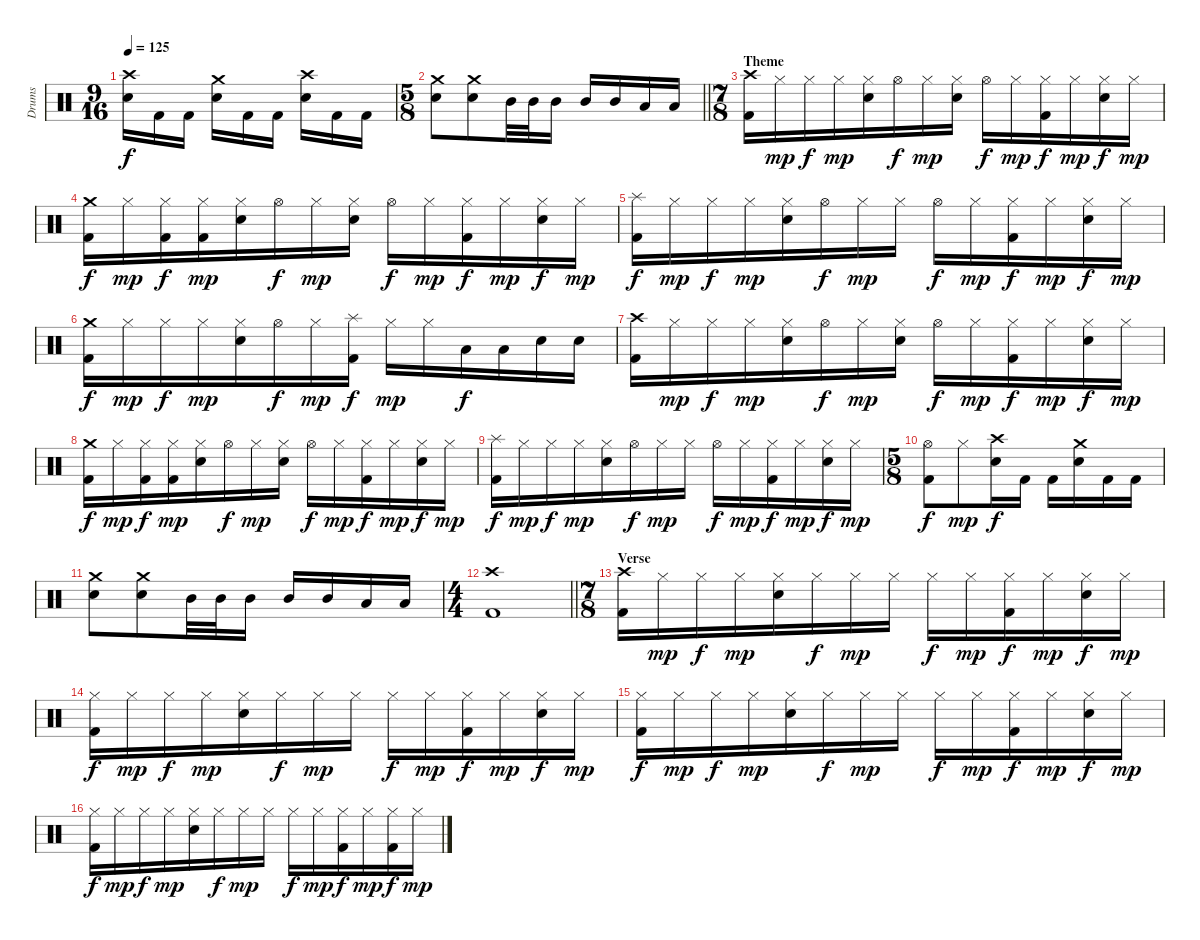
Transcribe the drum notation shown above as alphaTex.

\track ("Drums" "Drums") {instrument percussion}
\staff {score}
\articulation defaults
\ts (9 16)
\tempo 125
\clef neutral
\ks c
("Crash high (hit)" "Electric Snare (hit)").16{dy f} "Kick (hit) 2".16 "Kick (hit) 2".16 ("Crash medium (hit)" "Electric Snare (hit)").16 "Kick (hit) 2".16 "Kick (hit) 2".16 ("Crash high (hit)" "Electric Snare (hit)").16 "Kick (hit) 2".16 "Kick (hit) 2".16 |
\ts (5 8)
\barLineRight lightlight
("Crash medium (hit)" "Electric Snare (hit)").8 ("Crash medium (hit)" "Electric Snare (hit)").8 "Mid Tom (hit)".32 "Mid Tom (hit)".32 "Mid Tom (hit)".16 "Mid Tom (hit)".16 "Mid Tom (hit)".16 "Low Tom (hit)".16 "Low Tom (hit)".16 |
\ts (7 8)
\section ("" "Theme")
("Kick (hit) 2" "Crash high (hit)").16 "Hi-Hat (closed)".16{dy mp} "Hi-Hat (closed)".16{dy f} "Hi-Hat (closed)".16{dy mp} ("Hi-Hat (closed)" "Electric Snare (hit)").16 "Hi-Hat (open)".16{dy f} "Hi-Hat (closed)".16{dy mp} ("Hi-Hat (closed)" "Electric Snare (hit)").16 "Hi-Hat (open)".16{dy f} "Hi-Hat (closed)".16{dy mp} ("Kick (hit) 2" "Hi-Hat (closed)").16{dy f} "Hi-Hat (closed)".16{dy mp} ("Hi-Hat (closed)" "Electric Snare (hit)").16{dy f} "Hi-Hat (closed)".16{dy mp} |
("Kick (hit) 2" "Crash medium (hit)").16{dy f} "Hi-Hat (closed)".16{dy mp} ("Kick (hit) 2" "Hi-Hat (closed)").16{dy f} ("Kick (hit) 2" "Hi-Hat (closed)").16{dy mp} ("Hi-Hat (closed)" "Electric Snare (hit)").16 "Hi-Hat (open)".16{dy f} "Hi-Hat (closed)".16{dy mp} ("Hi-Hat (closed)" "Electric Snare (hit)").16 "Hi-Hat (open)".16{dy f} "Hi-Hat (closed)".16{dy mp} ("Kick (hit) 2" "Hi-Hat (closed)").16{dy f} "Hi-Hat (closed)".16{dy mp} ("Hi-Hat (closed)" "Electric Snare (hit)").16{dy f} "Hi-Hat (closed)".16{dy mp} |
("Kick (hit) 2" "Splash (hit)").16{dy f} "Hi-Hat (closed)".16{dy mp} "Hi-Hat (closed)".16{dy f} "Hi-Hat (closed)".16{dy mp} ("Hi-Hat (closed)" "Electric Snare (hit)").16 "Hi-Hat (open)".16{dy f} "Hi-Hat (closed)".16{dy mp} "Hi-Hat (closed)".16 "Hi-Hat (open)".16{dy f} "Hi-Hat (closed)".16{dy mp} ("Kick (hit) 2" "Hi-Hat (closed)").16{dy f} "Hi-Hat (closed)".16{dy mp} ("Hi-Hat (closed)" "Electric Snare (hit)").16{dy f} "Hi-Hat (closed)".16{dy mp} |
("Kick (hit) 2" "Crash medium (hit)").16{dy f} "Hi-Hat (closed)".16{dy mp} "Hi-Hat (closed)".16{dy f} "Hi-Hat (closed)".16{dy mp} ("Hi-Hat (closed)" "Electric Snare (hit)").16 "Hi-Hat (open)".16{dy f} "Hi-Hat (closed)".16{dy mp} ("Kick (hit) 2" "Splash (hit)").16{dy f} "Hi-Hat (closed)".16{dy mp} "Hi-Hat (closed)".16 "Low Tom (hit)".16{dy f} "Low Tom (hit)".16 "Electric Snare (hit)".16 "Electric Snare (hit)".16 |
("Kick (hit) 2" "Crash high (hit)").16 "Hi-Hat (closed)".16{dy mp} "Hi-Hat (closed)".16{dy f} "Hi-Hat (closed)".16{dy mp} ("Hi-Hat (closed)" "Electric Snare (hit)").16 "Hi-Hat (open)".16{dy f} "Hi-Hat (closed)".16{dy mp} ("Hi-Hat (closed)" "Electric Snare (hit)").16 "Hi-Hat (open)".16{dy f} "Hi-Hat (closed)".16{dy mp} ("Kick (hit) 2" "Hi-Hat (closed)").16{dy f} "Hi-Hat (closed)".16{dy mp} ("Hi-Hat (closed)" "Electric Snare (hit)").16{dy f} "Hi-Hat (closed)".16{dy mp} |
("Kick (hit) 2" "Crash medium (hit)").16{dy f} "Hi-Hat (closed)".16{dy mp} ("Kick (hit) 2" "Hi-Hat (closed)").16{dy f} ("Kick (hit) 2" "Hi-Hat (closed)").16{dy mp} ("Hi-Hat (closed)" "Electric Snare (hit)").16 "Hi-Hat (open)".16{dy f} "Hi-Hat (closed)".16{dy mp} ("Hi-Hat (closed)" "Electric Snare (hit)").16 "Hi-Hat (open)".16{dy f} "Hi-Hat (closed)".16{dy mp} ("Kick (hit) 2" "Hi-Hat (closed)").16{dy f} "Hi-Hat (closed)".16{dy mp} ("Hi-Hat (closed)" "Electric Snare (hit)").16{dy f} "Hi-Hat (closed)".16{dy mp} |
("Kick (hit) 2" "Splash (hit)").16{dy f} "Hi-Hat (closed)".16{dy mp} "Hi-Hat (closed)".16{dy f} "Hi-Hat (closed)".16{dy mp} ("Hi-Hat (closed)" "Electric Snare (hit)").16 "Hi-Hat (open)".16{dy f} "Hi-Hat (closed)".16{dy mp} "Hi-Hat (closed)".16 "Hi-Hat (open)".16{dy f} "Hi-Hat (closed)".16{dy mp} ("Kick (hit) 2" "Hi-Hat (closed)").16{dy f} "Hi-Hat (closed)".16{dy mp} ("Hi-Hat (closed)" "Electric Snare (hit)").16{dy f} "Hi-Hat (closed)".16{dy mp} |
\ts (5 8)
("Kick (hit) 2" "Hi-Hat (open)").8{dy f} "Hi-Hat (closed)".8{dy mp} ("Crash high (hit)" "Electric Snare (hit)").16{dy f} "Kick (hit) 2".16 "Kick (hit) 2".16 ("Crash medium (hit)" "Electric Snare (hit)").16 "Kick (hit) 2".16 "Kick (hit) 2".16 |
("Crash medium (hit)" "Electric Snare (hit)").8 ("Crash medium (hit)" "Electric Snare (hit)").8 "Mid Tom (hit)".32 "Mid Tom (hit)".32 "Mid Tom (hit)".16 "Mid Tom (hit)".16 "Mid Tom (hit)".16 "Low Tom (hit)".16 "Low Tom (hit)".16 |
\ts (4 4)
\barLineRight lightlight
("Kick (hit) 2" "Crash high (hit)").1 |
\ts (7 8)
\section ("" "Verse")
("Kick (hit) 2" "Crash high (hit)").16 "Hi-Hat (closed)".16{dy mp} "Hi-Hat (closed)".16{dy f} "Hi-Hat (closed)".16{dy mp} ("Hi-Hat (closed)" "Electric Snare (hit)").16 "Hi-Hat (closed)".16{dy f} "Hi-Hat (closed)".16{dy mp} "Hi-Hat (closed)".16 "Hi-Hat (closed)".16{dy f} "Hi-Hat (closed)".16{dy mp} ("Kick (hit) 2" "Hi-Hat (closed)").16{dy f} "Hi-Hat (closed)".16{dy mp} ("Hi-Hat (closed)" "Electric Snare (hit)").16{dy f} "Hi-Hat (closed)".16{dy mp} |
("Kick (hit) 2" "Hi-Hat (closed)").16{dy f} "Hi-Hat (closed)".16{dy mp} "Hi-Hat (closed)".16{dy f} "Hi-Hat (closed)".16{dy mp} ("Hi-Hat (closed)" "Electric Snare (hit)").16 "Hi-Hat (closed)".16{dy f} "Hi-Hat (closed)".16{dy mp} "Hi-Hat (closed)".16 "Hi-Hat (closed)".16{dy f} "Hi-Hat (closed)".16{dy mp} ("Kick (hit) 2" "Hi-Hat (closed)").16{dy f} "Hi-Hat (closed)".16{dy mp} ("Hi-Hat (closed)" "Electric Snare (hit)").16{dy f} "Hi-Hat (closed)".16{dy mp} |
("Kick (hit) 2" "Hi-Hat (closed)").16{dy f} "Hi-Hat (closed)".16{dy mp} "Hi-Hat (closed)".16{dy f} "Hi-Hat (closed)".16{dy mp} ("Hi-Hat (closed)" "Electric Snare (hit)").16 "Hi-Hat (closed)".16{dy f} "Hi-Hat (closed)".16{dy mp} "Hi-Hat (closed)".16 "Hi-Hat (closed)".16{dy f} "Hi-Hat (closed)".16{dy mp} ("Kick (hit) 2" "Hi-Hat (closed)").16{dy f} "Hi-Hat (closed)".16{dy mp} ("Hi-Hat (closed)" "Electric Snare (hit)").16{dy f} "Hi-Hat (closed)".16{dy mp} |
("Kick (hit) 2" "Hi-Hat (closed)").16{dy f} "Hi-Hat (closed)".16{dy mp} "Hi-Hat (closed)".16{dy f} "Hi-Hat (closed)".16{dy mp} ("Hi-Hat (closed)" "Electric Snare (hit)").16 "Hi-Hat (closed)".16{dy f} "Hi-Hat (closed)".16{dy mp} "Hi-Hat (closed)".16 "Hi-Hat (closed)".16{dy f} "Hi-Hat (closed)".16{dy mp} ("Kick (hit) 2" "Hi-Hat (closed)").16{dy f} "Hi-Hat (closed)".16{dy mp} ("Kick (hit) 2" "Hi-Hat (closed)").16{dy f} "Hi-Hat (closed)".16{dy mp}
